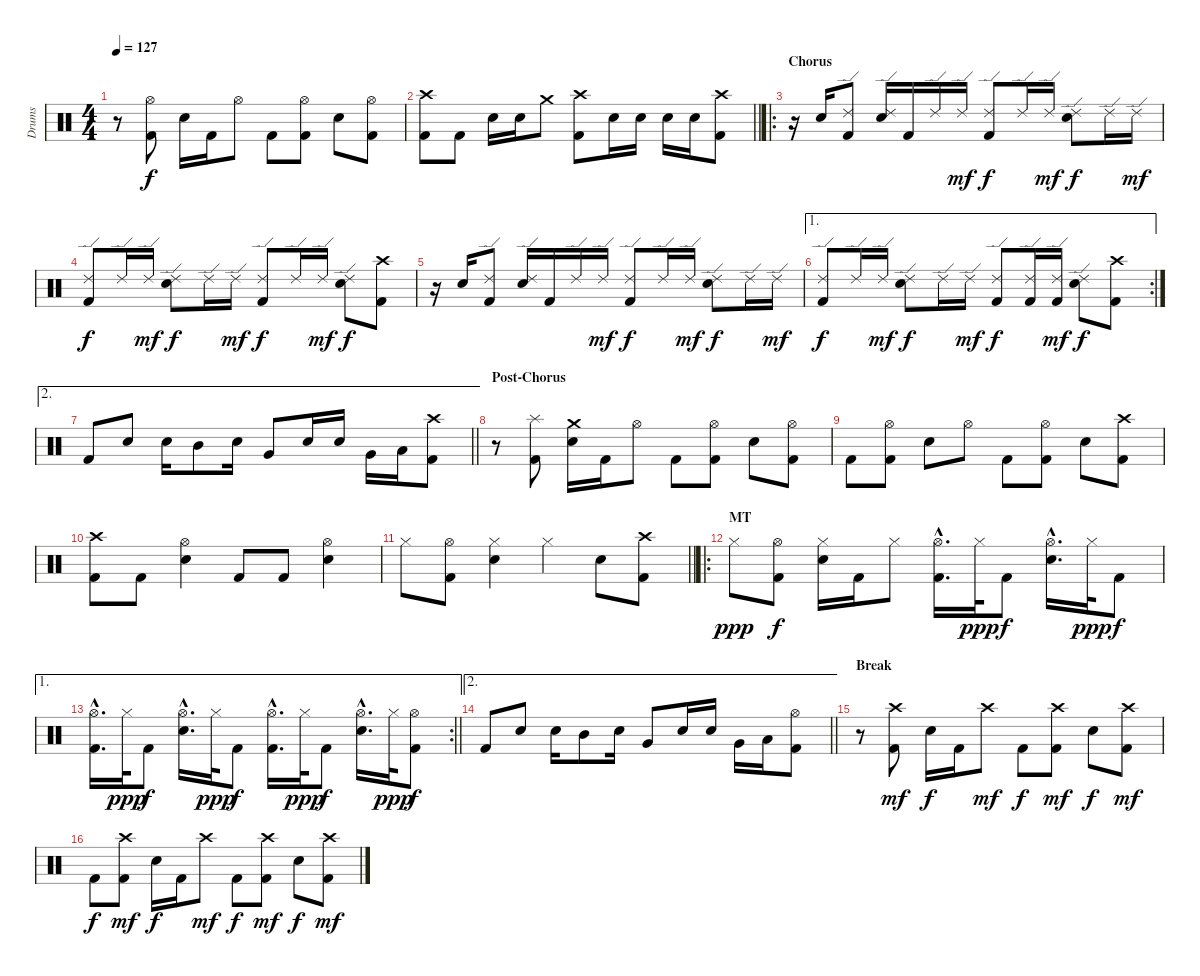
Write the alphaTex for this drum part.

\track ("Drums" "Drums") {instrument percussion}
\staff {score}
\articulation defaults
\ts (4 4)
\tempo 127
\clef neutral
\ks c
r.8{dy f} ("Hi-Hat (open)" "Kick (hit) 2").8 "Electric Snare (hit)".16 "Kick (hit) 2".16 "Hi-Hat (open)".8 "Kick (hit) 2".8 ("Hi-Hat (open)" "Kick (hit) 2").8 "Electric Snare (hit)".8 ("Hi-Hat (open)" "Kick (hit) 2").8 |
\barLineRight lightlight
("Crash high (hit)" "Kick (hit) 2").8 "Kick (hit) 2".8 "Electric Snare (hit)".16 "Electric Snare (hit)".16 "Crash medium (hit)".8 ("Crash high (hit)" "Kick (hit) 2").8 "Electric Snare (hit)".16 "Electric Snare (hit)".16 "Electric Snare (hit)".16 "Electric Snare (hit)".16 ("Crash high (hit)" "Kick (hit) 2").8 |
\ro
\section ("" "Chorus")
r.16 "Electric Snare (hit)".16 ("Ride (edge) 2" "Kick (hit) 2").8 ("Ride (edge) 2" "Electric Snare (hit)").16 "Kick (hit) 2".16 "Ride (edge) 2".16 "Ride (edge) 2".16{dy mf} ("Ride (edge) 2" "Kick (hit) 2").8{dy f} "Ride (edge) 2".16 "Ride (edge) 2".16{dy mf} ("Ride (edge) 2" "Electric Snare (hit)").8{dy f} "Ride (edge) 2".16 "Ride (edge) 2".16{dy mf} |
("Ride (edge) 2" "Kick (hit) 2").8{dy f} "Ride (edge) 2".16 "Ride (edge) 2".16{dy mf} ("Ride (edge) 2" "Electric Snare (hit)").8{dy f} "Ride (edge) 2".16 "Ride (edge) 2".16{dy mf} ("Ride (edge) 2" "Kick (hit) 2").8{dy f} "Ride (edge) 2".16 "Ride (edge) 2".16{dy mf} ("Ride (edge) 2" "Electric Snare (hit)").8{dy f} ("Crash high (hit)" "Kick (hit) 2").8 |
r.16 "Electric Snare (hit)".16 ("Ride (edge) 2" "Kick (hit) 2").8 ("Ride (edge) 2" "Electric Snare (hit)").16 "Kick (hit) 2".16 "Ride (edge) 2".16 "Ride (edge) 2".16{dy mf} ("Ride (edge) 2" "Kick (hit) 2").8{dy f} "Ride (edge) 2".16 "Ride (edge) 2".16{dy mf} ("Ride (edge) 2" "Electric Snare (hit)").8{dy f} "Ride (edge) 2".16 "Ride (edge) 2".16{dy mf} |
\ae 1
\rc 2
("Ride (edge) 2" "Kick (hit) 2").8{dy f} "Ride (edge) 2".16 "Ride (edge) 2".16{dy mf} ("Ride (edge) 2" "Electric Snare (hit)").8{dy f} "Ride (edge) 2".16 "Ride (edge) 2".16{dy mf} ("Ride (edge) 2" "Kick (hit) 2").8{dy f} ("Ride (edge) 2" "Kick (hit) 2").16 ("Ride (edge) 2" "Kick (hit) 2").16{dy mf} ("Ride (edge) 2" "Electric Snare (hit)").8{dy f} ("Crash high (hit)" "Kick (hit) 2").8 |
\ae 2
\barLineRight lightlight "Kick (hit) 2".8 "Electric Snare (hit)".8 "Electric Snare (hit)".16 "Mid Tom (hit)".8 "Electric Snare (hit)".16 "Very Low Tom (hit)".8 "Electric Snare (hit)".16 "Electric Snare (hit)".16 "Very Low Tom (hit)".16 "Low Floor Tom (hit)".16
("Crash high (hit)" "Kick (hit) 2").8 |
\section ("" "Post-Chorus")
r.8 ("Splash (hit)" "Kick (hit) 2").8 ("Crash medium (hit)" "Electric Snare (hit)").16 "Kick (hit) 2".16 "Hi-Hat (open)".8 "Kick (hit) 2".8 ("Hi-Hat (open)" "Kick (hit) 2").8 "Electric Snare (hit)".8 ("Hi-Hat (open)" "Kick (hit) 2").8 |
"Kick (hit) 2".8 ("Hi-Hat (open)" "Kick (hit) 2").8 "Electric Snare (hit)".8 "Hi-Hat (open)".8 "Kick (hit) 2".8 ("Hi-Hat (open)" "Kick (hit) 2").8 "Electric Snare (hit)".8 ("Crash high (hit)" "Kick (hit) 2").8 |
("Crash high (hit)" "Kick (hit) 2").8 "Kick (hit) 2".8 ("Hi-Hat (open)" "Electric Snare (hit)").4 "Kick (hit) 2".8 "Kick (hit) 2".8 ("Hi-Hat (open)" "Electric Snare (hit)").4 |
\barLineRight lightlight "Hi-Hat (closed)".8
("Hi-Hat (open)" "Kick (hit) 2").8 ("Hi-Hat (closed)" "Electric Snare (hit)").4 "Hi-Hat (closed)".4 "Electric Snare (hit)".8 ("Crash high (hit)" "Kick (hit) 2").8 |
\ro
\section ("" "MT")
"Hi-Hat (closed)".8{dy ppp} ("Hi-Hat (open)" "Kick (hit) 2").8{dy f} ("Hi-Hat (closed)" "Electric Snare (hit)").16 "Kick (hit) 2".16 "Hi-Hat (closed)".8 ("Hi-Hat (open)"{hac} "Kick (hit) 2"{hac}).16{d} "Hi-Hat (closed)".32{dy ppp} "Kick (hit) 2".8{dy f} ("Hi-Hat (open)"{hac} "Electric Snare (hit)"{hac}).16{d} "Hi-Hat (closed)".32{dy ppp} "Kick (hit) 2".8{dy f} |
\ae 1
\rc 2
\barLineRight lightlight
("Hi-Hat (open)"{hac} "Kick (hit) 2"{hac}).16{d} "Hi-Hat (closed)".32{dy ppp} "Kick (hit) 2".8{dy f} ("Hi-Hat (open)"{hac} "Electric Snare (hit)"{hac}).16{d} "Hi-Hat (closed)".32{dy ppp} "Kick (hit) 2".8{dy f} ("Hi-Hat (open)"{hac} "Kick (hit) 2"{hac}).16{d} "Hi-Hat (closed)".32{dy ppp} "Kick (hit) 2".8{dy f} ("Hi-Hat (open)"{hac} "Electric Snare (hit)"{hac}).16{d} "Hi-Hat (closed)".32{dy ppp} ("Hi-Hat (open)" "Kick (hit) 2").8{dy f} |
\ae 2
\barLineRight lightlight "Kick (hit) 2".8 "Electric Snare (hit)".8 "Electric Snare (hit)".16 "Mid Tom (hit)".8 "Electric Snare (hit)".16 "Very Low Tom (hit)".8 "Electric Snare (hit)".16 "Electric Snare (hit)".16 "Very Low Tom (hit)".16 "Low Floor Tom (hit)".16
("Hi-Hat (open)" "Kick (hit) 2").8 |
\section ("" "Break")
r.8 ("Crash high (hit)" "Kick (hit) 2").8{dy mf} "Electric Snare (hit)".16{dy f} "Kick (hit) 2".16 "Crash high (hit)".8{dy mf} "Kick (hit) 2".8{dy f} ("Crash high (hit)" "Kick (hit) 2").8{dy mf} "Electric Snare (hit)".8{dy f} ("Crash high (hit)" "Kick (hit) 2").8{dy mf} |
"Kick (hit) 2".8{dy f} ("Crash high (hit)" "Kick (hit) 2").8{dy mf} "Electric Snare (hit)".16{dy f} "Kick (hit) 2".16 "Crash high (hit)".8{dy mf} "Kick (hit) 2".8{dy f} ("Crash high (hit)" "Kick (hit) 2").8{dy mf} "Electric Snare (hit)".8{dy f} ("Crash high (hit)" "Kick (hit) 2").8{dy mf}
